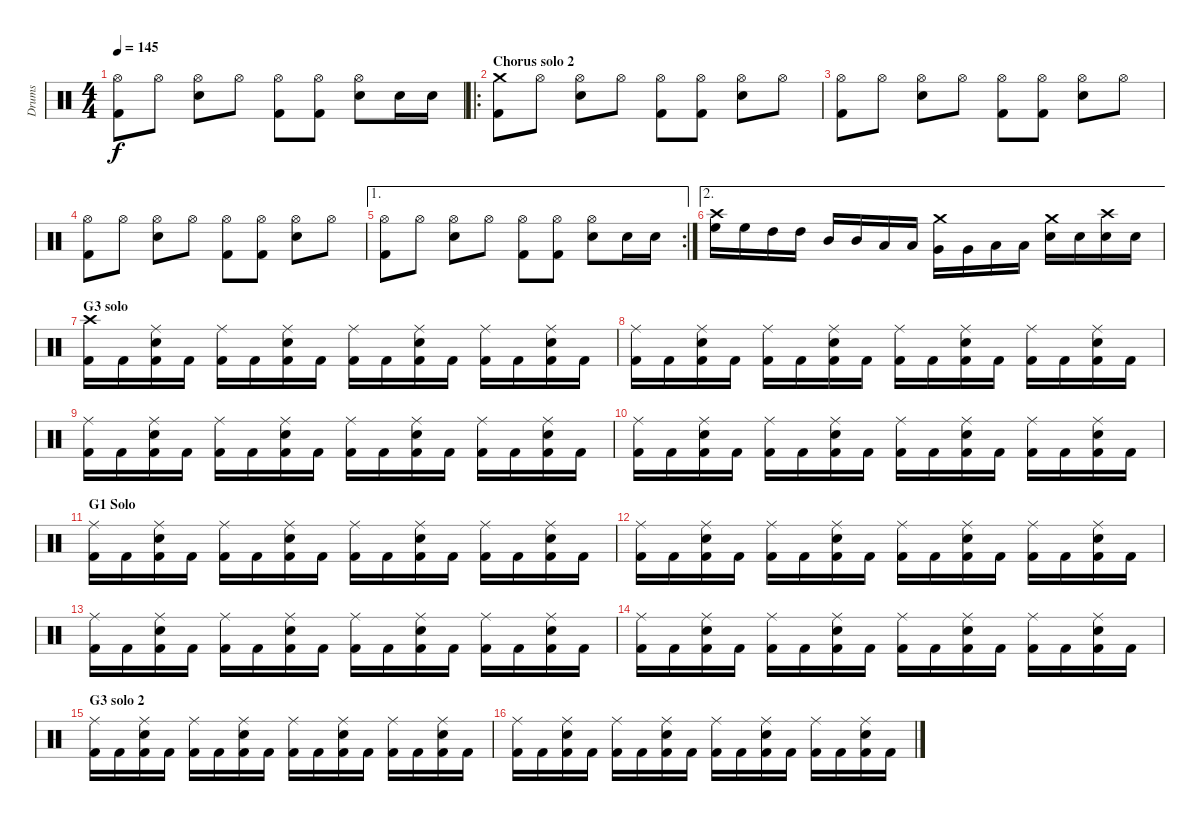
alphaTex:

\track ("Drums" "Drums") {instrument percussion}
\staff {score}
\articulation defaults
\ts (4 4)
\tempo 145
\clef neutral
\ks c
("Hi-Hat (open)" "Kick (hit) 2").8{dy f} "Hi-Hat (open)".8 ("Hi-Hat (open)" "Electric Snare (hit)").8 "Hi-Hat (open)".8 ("Hi-Hat (open)" "Kick (hit) 2").8 ("Hi-Hat (open)" "Kick (hit) 2").8 ("Hi-Hat (open)" "Electric Snare (hit)").8 "Electric Snare (hit)".16 "Electric Snare (hit)".16 |
\ro
\section ("" "Chorus solo 2")
("Crash medium (hit)" "Kick (hit) 2").8 "Hi-Hat (open)".8 ("Hi-Hat (open)" "Electric Snare (hit)").8 "Hi-Hat (open)".8 ("Hi-Hat (open)" "Kick (hit) 2").8 ("Hi-Hat (open)" "Kick (hit) 2").8 ("Hi-Hat (open)" "Electric Snare (hit)").8 "Hi-Hat (open)".8 |
("Hi-Hat (open)" "Kick (hit) 2").8 "Hi-Hat (open)".8 ("Hi-Hat (open)" "Electric Snare (hit)").8 "Hi-Hat (open)".8 ("Hi-Hat (open)" "Kick (hit) 2").8 ("Hi-Hat (open)" "Kick (hit) 2").8 ("Hi-Hat (open)" "Electric Snare (hit)").8 "Hi-Hat (open)".8 |
("Hi-Hat (open)" "Kick (hit) 2").8 "Hi-Hat (open)".8 ("Hi-Hat (open)" "Electric Snare (hit)").8 "Hi-Hat (open)".8 ("Hi-Hat (open)" "Kick (hit) 2").8 ("Hi-Hat (open)" "Kick (hit) 2").8 ("Hi-Hat (open)" "Electric Snare (hit)").8 "Hi-Hat (open)".8 |
\ae 1
\rc 2
("Hi-Hat (open)" "Kick (hit) 2").8 "Hi-Hat (open)".8 ("Hi-Hat (open)" "Electric Snare (hit)").8 "Hi-Hat (open)".8 ("Hi-Hat (open)" "Kick (hit) 2").8 ("Hi-Hat (open)" "Kick (hit) 2").8 ("Hi-Hat (open)" "Electric Snare (hit)").8 "Electric Snare (hit)".16 "Electric Snare (hit)".16 |
\ae 2
("Crash high (hit)" "High Floor Tom (hit)").16 "High Floor Tom (hit)".16 "High Tom (hit)".16 "High Tom (hit)".16 "Mid Tom (hit)".16 "Mid Tom (hit)".16 "Low Tom (hit)".16 "Low Tom (hit)".16 ("Crash medium (hit)" "Very Low Tom (hit)").16 "Very Low Tom (hit)".16 "Low Floor Tom (hit)".16 "Low Floor Tom (hit)".16 ("Crash medium (hit)" "Electric Snare (hit)").16 "Electric Snare (hit)".16 ("Crash high (hit)" "Snare (hit) 2").16 "Snare (hit) 2".16 |
\section ("" "G3 solo")
("Crash high (hit)" "Kick (hit) 2").16 "Kick (hit) 2".16 ("Ride (middle)" "Electric Snare (hit)" "Kick (hit) 2").16 "Kick (hit) 2".16 ("Ride (middle)" "Kick (hit) 2").16 "Kick (hit) 2".16 ("Ride (middle)" "Electric Snare (hit)" "Kick (hit) 2").16 "Kick (hit) 2".16 ("Ride (middle)" "Kick (hit) 2").16 "Kick (hit) 2".16 ("Ride (middle)" "Electric Snare (hit)" "Kick (hit) 2").16 "Kick (hit) 2".16 ("Ride (middle)" "Kick (hit) 2").16 "Kick (hit) 2".16 ("Ride (middle)" "Electric Snare (hit)" "Kick (hit) 2").16 "Kick (hit) 2".16 |
("Ride (middle)" "Kick (hit) 2").16 "Kick (hit) 2".16 ("Ride (middle)" "Electric Snare (hit)" "Kick (hit) 2").16 "Kick (hit) 2".16 ("Ride (middle)" "Kick (hit) 2").16 "Kick (hit) 2".16 ("Ride (middle)" "Electric Snare (hit)" "Kick (hit) 2").16 "Kick (hit) 2".16 ("Ride (middle)" "Kick (hit) 2").16 "Kick (hit) 2".16 ("Ride (middle)" "Electric Snare (hit)" "Kick (hit) 2").16 "Kick (hit) 2".16 ("Ride (middle)" "Kick (hit) 2").16 "Kick (hit) 2".16 ("Ride (middle)" "Electric Snare (hit)" "Kick (hit) 2").16 "Kick (hit) 2".16 |
("Ride (middle)" "Kick (hit) 2").16 "Kick (hit) 2".16 ("Ride (middle)" "Electric Snare (hit)" "Kick (hit) 2").16 "Kick (hit) 2".16 ("Ride (middle)" "Kick (hit) 2").16 "Kick (hit) 2".16 ("Ride (middle)" "Electric Snare (hit)" "Kick (hit) 2").16 "Kick (hit) 2".16 ("Ride (middle)" "Kick (hit) 2").16 "Kick (hit) 2".16 ("Ride (middle)" "Electric Snare (hit)" "Kick (hit) 2").16 "Kick (hit) 2".16 ("Ride (middle)" "Kick (hit) 2").16 "Kick (hit) 2".16 ("Ride (middle)" "Electric Snare (hit)" "Kick (hit) 2").16 "Kick (hit) 2".16 |
("Ride (middle)" "Kick (hit) 2").16 "Kick (hit) 2".16 ("Ride (middle)" "Electric Snare (hit)" "Kick (hit) 2").16 "Kick (hit) 2".16 ("Ride (middle)" "Kick (hit) 2").16 "Kick (hit) 2".16 ("Ride (middle)" "Electric Snare (hit)" "Kick (hit) 2").16 "Kick (hit) 2".16 ("Ride (middle)" "Kick (hit) 2").16 "Kick (hit) 2".16 ("Ride (middle)" "Electric Snare (hit)" "Kick (hit) 2").16 "Kick (hit) 2".16 ("Ride (middle)" "Kick (hit) 2").16 "Kick (hit) 2".16 ("Ride (middle)" "Electric Snare (hit)" "Kick (hit) 2").16 "Kick (hit) 2".16 |
\section ("" "G1 Solo")
("Ride (middle)" "Kick (hit) 2").16 "Kick (hit) 2".16 ("Ride (middle)" "Electric Snare (hit)" "Kick (hit) 2").16 "Kick (hit) 2".16 ("Ride (middle)" "Kick (hit) 2").16 "Kick (hit) 2".16 ("Ride (middle)" "Electric Snare (hit)" "Kick (hit) 2").16 "Kick (hit) 2".16 ("Ride (middle)" "Kick (hit) 2").16 "Kick (hit) 2".16 ("Ride (middle)" "Electric Snare (hit)" "Kick (hit) 2").16 "Kick (hit) 2".16 ("Ride (middle)" "Kick (hit) 2").16 "Kick (hit) 2".16 ("Ride (middle)" "Electric Snare (hit)" "Kick (hit) 2").16 "Kick (hit) 2".16 |
("Ride (middle)" "Kick (hit) 2").16 "Kick (hit) 2".16 ("Ride (middle)" "Electric Snare (hit)" "Kick (hit) 2").16 "Kick (hit) 2".16 ("Ride (middle)" "Kick (hit) 2").16 "Kick (hit) 2".16 ("Ride (middle)" "Electric Snare (hit)" "Kick (hit) 2").16 "Kick (hit) 2".16 ("Ride (middle)" "Kick (hit) 2").16 "Kick (hit) 2".16 ("Ride (middle)" "Electric Snare (hit)" "Kick (hit) 2").16 "Kick (hit) 2".16 ("Ride (middle)" "Kick (hit) 2").16 "Kick (hit) 2".16 ("Ride (middle)" "Electric Snare (hit)" "Kick (hit) 2").16 "Kick (hit) 2".16 |
("Ride (middle)" "Kick (hit) 2").16 "Kick (hit) 2".16 ("Ride (middle)" "Electric Snare (hit)" "Kick (hit) 2").16 "Kick (hit) 2".16 ("Ride (middle)" "Kick (hit) 2").16 "Kick (hit) 2".16 ("Ride (middle)" "Electric Snare (hit)" "Kick (hit) 2").16 "Kick (hit) 2".16 ("Ride (middle)" "Kick (hit) 2").16 "Kick (hit) 2".16 ("Ride (middle)" "Electric Snare (hit)" "Kick (hit) 2").16 "Kick (hit) 2".16 ("Ride (middle)" "Kick (hit) 2").16 "Kick (hit) 2".16 ("Ride (middle)" "Electric Snare (hit)" "Kick (hit) 2").16 "Kick (hit) 2".16 |
("Ride (middle)" "Kick (hit) 2").16 "Kick (hit) 2".16 ("Ride (middle)" "Electric Snare (hit)" "Kick (hit) 2").16 "Kick (hit) 2".16 ("Ride (middle)" "Kick (hit) 2").16 "Kick (hit) 2".16 ("Ride (middle)" "Electric Snare (hit)" "Kick (hit) 2").16 "Kick (hit) 2".16 ("Ride (middle)" "Kick (hit) 2").16 "Kick (hit) 2".16 ("Ride (middle)" "Electric Snare (hit)" "Kick (hit) 2").16 "Kick (hit) 2".16 ("Ride (middle)" "Kick (hit) 2").16 "Kick (hit) 2".16 ("Ride (middle)" "Electric Snare (hit)" "Kick (hit) 2").16 "Kick (hit) 2".16 |
\section ("" "G3 solo 2")
("Ride (middle)" "Kick (hit) 2").16 "Kick (hit) 2".16 ("Ride (middle)" "Electric Snare (hit)" "Kick (hit) 2").16 "Kick (hit) 2".16 ("Ride (middle)" "Kick (hit) 2").16 "Kick (hit) 2".16 ("Ride (middle)" "Electric Snare (hit)" "Kick (hit) 2").16 "Kick (hit) 2".16 ("Ride (middle)" "Kick (hit) 2").16 "Kick (hit) 2".16 ("Ride (middle)" "Electric Snare (hit)" "Kick (hit) 2").16 "Kick (hit) 2".16 ("Ride (middle)" "Kick (hit) 2").16 "Kick (hit) 2".16 ("Ride (middle)" "Electric Snare (hit)" "Kick (hit) 2").16 "Kick (hit) 2".16 |
("Ride (middle)" "Kick (hit) 2").16 "Kick (hit) 2".16 ("Ride (middle)" "Electric Snare (hit)" "Kick (hit) 2").16 "Kick (hit) 2".16 ("Ride (middle)" "Kick (hit) 2").16 "Kick (hit) 2".16 ("Ride (middle)" "Electric Snare (hit)" "Kick (hit) 2").16 "Kick (hit) 2".16 ("Ride (middle)" "Kick (hit) 2").16 "Kick (hit) 2".16 ("Ride (middle)" "Electric Snare (hit)" "Kick (hit) 2").16 "Kick (hit) 2".16 ("Ride (middle)" "Kick (hit) 2").16 "Kick (hit) 2".16 ("Ride (middle)" "Electric Snare (hit)" "Kick (hit) 2").16 "Kick (hit) 2".16
